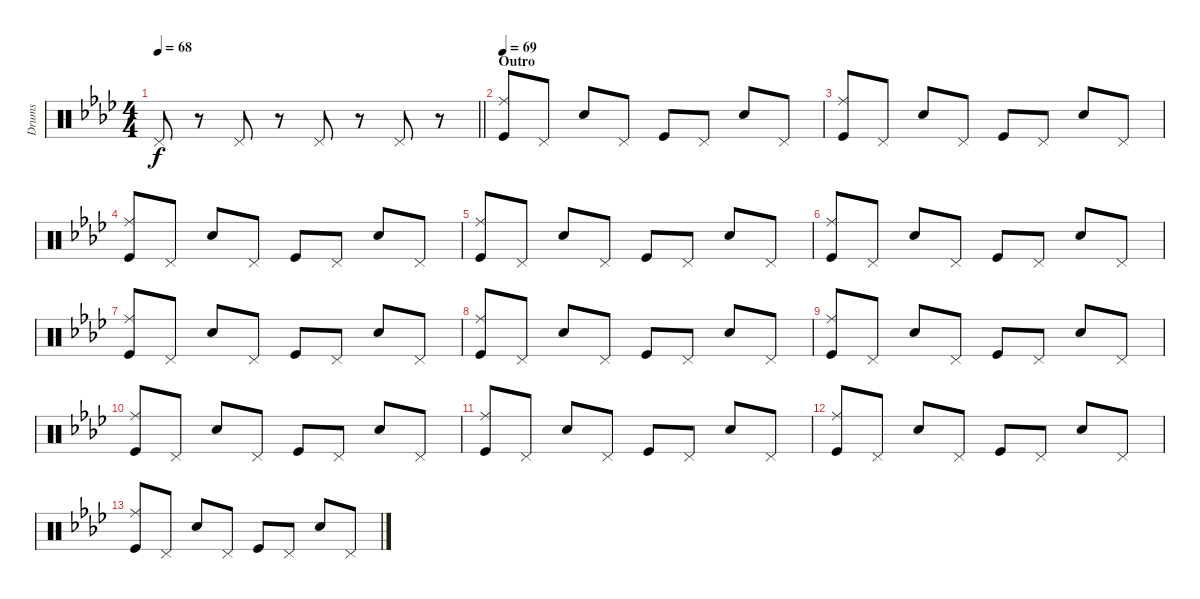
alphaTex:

\track ("Drums" "Drums") {instrument percussion}
\staff {score}
\articulation defaults
\ts (4 4)
\tempo 68
\clef neutral
\barLineRight lightlight
\ks ab "Pedal Hi-Hat (hit)".8{dy f}
r.8 "Pedal Hi-Hat (hit)".8 r.8 "Pedal Hi-Hat (hit)".8 r.8 "Pedal Hi-Hat (hit)".8 r.8 |
\section ("" "Outro")
\tempo 69
("Kick (hit)" "Ride (middle)").8 "Pedal Hi-Hat (hit)".8 "Snare (hit) 2".8 "Pedal Hi-Hat (hit)".8 "Kick (hit)".8 "Pedal Hi-Hat (hit)".8 "Snare (hit) 2".8 "Pedal Hi-Hat (hit)".8 |
("Kick (hit)" "Ride (middle)").8 "Pedal Hi-Hat (hit)".8 "Snare (hit) 2".8 "Pedal Hi-Hat (hit)".8 "Kick (hit)".8 "Pedal Hi-Hat (hit)".8 "Snare (hit) 2".8 "Pedal Hi-Hat (hit)".8 |
("Kick (hit)" "Ride (middle)").8 "Pedal Hi-Hat (hit)".8 "Snare (hit) 2".8 "Pedal Hi-Hat (hit)".8 "Kick (hit)".8 "Pedal Hi-Hat (hit)".8 "Snare (hit) 2".8 "Pedal Hi-Hat (hit)".8 |
("Kick (hit)" "Ride (middle)").8 "Pedal Hi-Hat (hit)".8 "Snare (hit) 2".8 "Pedal Hi-Hat (hit)".8 "Kick (hit)".8 "Pedal Hi-Hat (hit)".8 "Snare (hit) 2".8 "Pedal Hi-Hat (hit)".8 |
("Kick (hit)" "Ride (middle)").8 "Pedal Hi-Hat (hit)".8 "Snare (hit) 2".8 "Pedal Hi-Hat (hit)".8 "Kick (hit)".8 "Pedal Hi-Hat (hit)".8 "Snare (hit) 2".8 "Pedal Hi-Hat (hit)".8 |
("Kick (hit)" "Ride (middle)").8 "Pedal Hi-Hat (hit)".8 "Snare (hit) 2".8 "Pedal Hi-Hat (hit)".8 "Kick (hit)".8 "Pedal Hi-Hat (hit)".8 "Snare (hit) 2".8 "Pedal Hi-Hat (hit)".8 |
("Kick (hit)" "Ride (middle)").8 "Pedal Hi-Hat (hit)".8 "Snare (hit) 2".8 "Pedal Hi-Hat (hit)".8 "Kick (hit)".8 "Pedal Hi-Hat (hit)".8 "Snare (hit) 2".8 "Pedal Hi-Hat (hit)".8 |
("Kick (hit)" "Ride (middle)").8 "Pedal Hi-Hat (hit)".8 "Snare (hit) 2".8 "Pedal Hi-Hat (hit)".8 "Kick (hit)".8 "Pedal Hi-Hat (hit)".8 "Snare (hit) 2".8 "Pedal Hi-Hat (hit)".8 |
("Kick (hit)" "Ride (middle)").8 "Pedal Hi-Hat (hit)".8 "Snare (hit) 2".8 "Pedal Hi-Hat (hit)".8 "Kick (hit)".8 "Pedal Hi-Hat (hit)".8 "Snare (hit) 2".8 "Pedal Hi-Hat (hit)".8 |
("Kick (hit)" "Ride (middle)").8 "Pedal Hi-Hat (hit)".8 "Snare (hit) 2".8 "Pedal Hi-Hat (hit)".8 "Kick (hit)".8 "Pedal Hi-Hat (hit)".8 "Snare (hit) 2".8 "Pedal Hi-Hat (hit)".8 |
("Kick (hit)" "Ride (middle)").8 "Pedal Hi-Hat (hit)".8 "Snare (hit) 2".8 "Pedal Hi-Hat (hit)".8 "Kick (hit)".8 "Pedal Hi-Hat (hit)".8 "Snare (hit) 2".8 "Pedal Hi-Hat (hit)".8 |
("Kick (hit)" "Ride (middle)").8 "Pedal Hi-Hat (hit)".8 "Snare (hit) 2".8 "Pedal Hi-Hat (hit)".8 "Kick (hit)".8 "Pedal Hi-Hat (hit)".8 "Snare (hit) 2".8 "Pedal Hi-Hat (hit)".8
